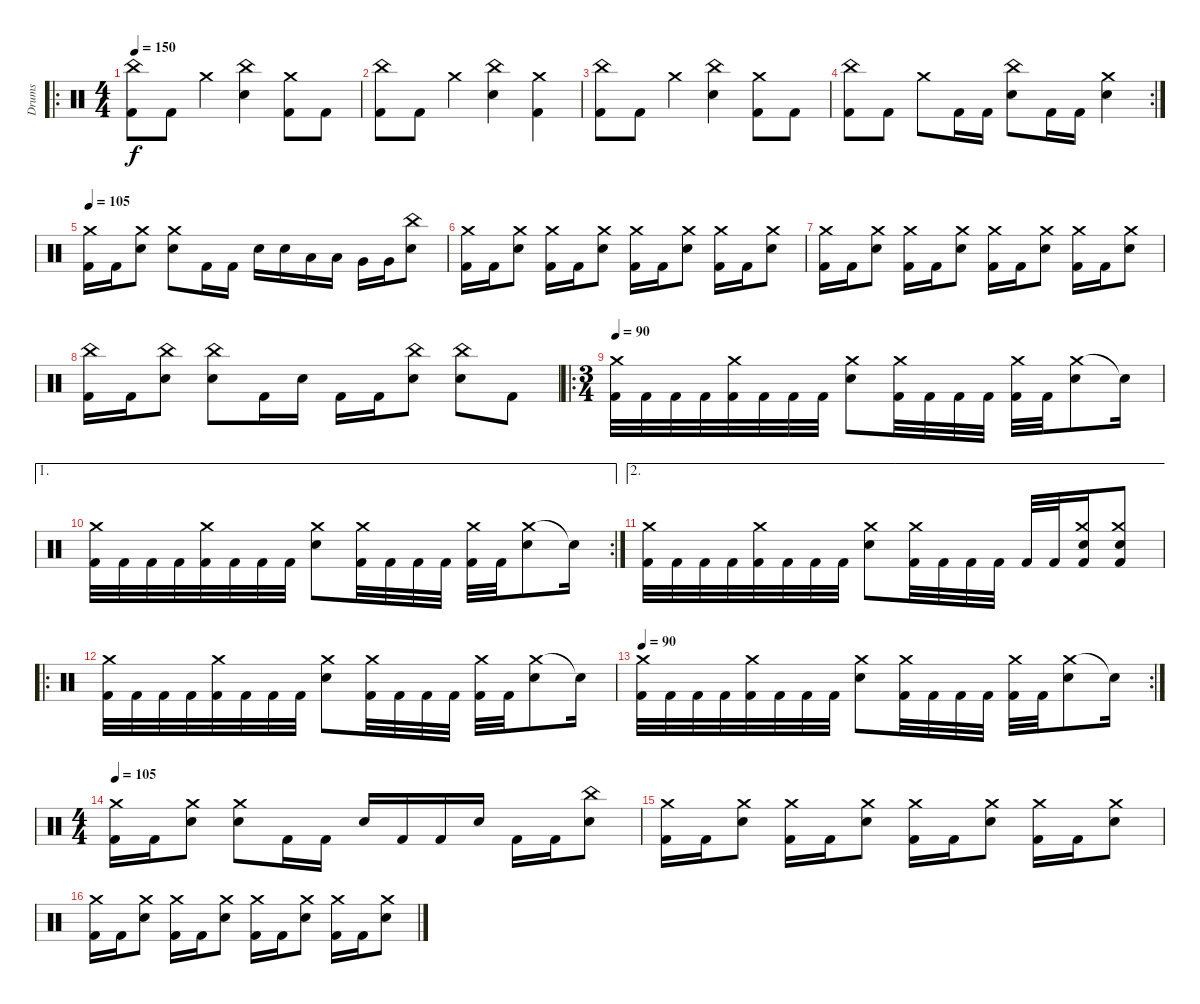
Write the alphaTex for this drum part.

\track ("Drums" "Drums") {instrument percussion}
\staff {score}
\articulation defaults
\ro
\ts (4 4)
\tempo 150
\clef neutral
\ks c
("China (hit)" "Kick (hit) 2").8{dy f} "Kick (hit) 2".8 "Crash medium (hit)".4 ("China (hit)" "Electric Snare (hit)").4 ("Crash medium (hit)" "Kick (hit) 2").8 "Kick (hit) 2".8 |
("China (hit)" "Kick (hit) 2").8 "Kick (hit) 2".8 "Crash medium (hit)".4 ("China (hit)" "Electric Snare (hit)").4 ("Crash medium (hit)" "Kick (hit) 2").4 |
("China (hit)" "Kick (hit) 2").8 "Kick (hit) 2".8 "Crash medium (hit)".4 ("China (hit)" "Electric Snare (hit)").4 ("Crash medium (hit)" "Kick (hit) 2").8 "Kick (hit) 2".8 |
\rc 2
("China (hit)" "Kick (hit) 2").8 "Kick (hit) 2".8 "Crash medium (hit)".8 "Kick (hit) 2".16 "Kick (hit) 2".16 ("China (hit)" "Electric Snare (hit)").8 "Kick (hit) 2".16 "Kick (hit) 2".16 ("Crash medium (hit)" "Electric Snare (hit)").4 |
\tempo 105
("Crash medium (hit)" "Kick (hit) 2").16 "Kick (hit) 2".16 ("Crash medium (hit)" "Electric Snare (hit)").8 ("Crash medium (hit)" "Electric Snare (hit)").8 "Kick (hit) 2".16 "Kick (hit) 2".16 "Electric Snare (hit)".16 "Electric Snare (hit)".16 "Low Tom (hit)".16 "Low Tom (hit)".16 "Very Low Tom (hit)".16 "Very Low Tom (hit)".16 ("China (hit)" "Electric Snare (hit)").8 |
("Crash medium (hit)" "Kick (hit) 2").16 "Kick (hit) 2".16 ("Crash medium (hit)" "Electric Snare (hit)").8 ("Crash medium (hit)" "Kick (hit) 2").16 "Kick (hit) 2".16 ("Crash medium (hit)" "Electric Snare (hit)").8 ("Crash medium (hit)" "Kick (hit) 2").16 "Kick (hit) 2".16 ("Crash medium (hit)" "Electric Snare (hit)").8 ("Crash medium (hit)" "Kick (hit) 2").16 "Kick (hit) 2".16 ("Crash medium (hit)" "Electric Snare (hit)").8 |
("Crash medium (hit)" "Kick (hit) 2").16 "Kick (hit) 2".16 ("Crash medium (hit)" "Electric Snare (hit)").8 ("Crash medium (hit)" "Kick (hit) 2").16 "Kick (hit) 2".16 ("Crash medium (hit)" "Electric Snare (hit)").8 ("Crash medium (hit)" "Kick (hit) 2").16 "Kick (hit) 2".16 ("Crash medium (hit)" "Electric Snare (hit)").8 ("Crash medium (hit)" "Kick (hit) 2").16 "Kick (hit) 2".16 ("Crash medium (hit)" "Electric Snare (hit)").8 |
("China (hit)" "Kick (hit) 2").16 "Kick (hit) 2".16 ("China (hit)" "Electric Snare (hit)").8 ("China (hit)" "Electric Snare (hit)").8 "Kick (hit) 2".16 "Electric Snare (hit)".16 "Kick (hit) 2".16 "Kick (hit) 2".16 ("China (hit)" "Electric Snare (hit)").8 ("China (hit)" "Electric Snare (hit)").8 "Kick (hit) 2".8 |
\ro
\ts (3 4)
\tempo 90
("Crash medium (hit)" "Kick (hit) 2").32 "Kick (hit) 2".32 "Kick (hit) 2".32 "Kick (hit) 2".32 ("Crash medium (hit)" "Kick (hit) 2").32 "Kick (hit) 2".32 "Kick (hit) 2".32 "Kick (hit) 2".32 ("Crash medium (hit)" "Electric Snare (hit)").8 ("Crash medium (hit)" "Kick (hit) 2").32 "Kick (hit) 2".32 "Kick (hit) 2".32 "Kick (hit) 2".32 ("Crash medium (hit)" "Kick (hit) 2").32 "Kick (hit) 2".32 ("Crash medium (hit)" "Electric Snare (hit)").8 "Snare (hit)"{t}.16 |
\ae 1
\rc 2
("Crash medium (hit)" "Kick (hit) 2").32 "Kick (hit) 2".32 "Kick (hit) 2".32 "Kick (hit) 2".32 ("Crash medium (hit)" "Kick (hit) 2").32 "Kick (hit) 2".32 "Kick (hit) 2".32 "Kick (hit) 2".32 ("Crash medium (hit)" "Electric Snare (hit)").8 ("Crash medium (hit)" "Kick (hit) 2").32 "Kick (hit) 2".32 "Kick (hit) 2".32 "Kick (hit) 2".32 ("Crash medium (hit)" "Kick (hit) 2").32 "Kick (hit) 2".32 ("Crash medium (hit)" "Electric Snare (hit)").8 "Snare (hit)"{t}.16 |
\ae 2
("Crash medium (hit)" "Kick (hit) 2").32 "Kick (hit) 2".32 "Kick (hit) 2".32 "Kick (hit) 2".32 ("Crash medium (hit)" "Kick (hit) 2").32 "Kick (hit) 2".32 "Kick (hit) 2".32 "Kick (hit) 2".32 ("Crash medium (hit)" "Electric Snare (hit)").8 ("Crash medium (hit)" "Kick (hit) 2").32 "Kick (hit) 2".32 "Kick (hit) 2".32 "Kick (hit) 2".32 "Kick (hit) 2".32 "Kick (hit) 2".32 ("Crash medium (hit)" "Kick (hit) 2" "Electric Snare (hit)").16 ("Crash medium (hit)" "Kick (hit) 2" "Electric Snare (hit)").8 |
\ro
("Crash medium (hit)" "Kick (hit) 2").32 "Kick (hit) 2".32 "Kick (hit) 2".32 "Kick (hit) 2".32 ("Crash medium (hit)" "Kick (hit) 2").32 "Kick (hit) 2".32 "Kick (hit) 2".32 "Kick (hit) 2".32 ("Crash medium (hit)" "Electric Snare (hit)").8 ("Crash medium (hit)" "Kick (hit) 2").32 "Kick (hit) 2".32 "Kick (hit) 2".32 "Kick (hit) 2".32 ("Crash medium (hit)" "Kick (hit) 2").32 "Kick (hit) 2".32 ("Crash medium (hit)" "Electric Snare (hit)").8 "Snare (hit)"{t}.16 |
\rc 2
\tempo 90
("Crash medium (hit)" "Kick (hit) 2").32 "Kick (hit) 2".32 "Kick (hit) 2".32 "Kick (hit) 2".32 ("Crash medium (hit)" "Kick (hit) 2").32 "Kick (hit) 2".32 "Kick (hit) 2".32 "Kick (hit) 2".32 ("Crash medium (hit)" "Electric Snare (hit)").8 ("Crash medium (hit)" "Kick (hit) 2").32 "Kick (hit) 2".32 "Kick (hit) 2".32 "Kick (hit) 2".32 ("Crash medium (hit)" "Kick (hit) 2").32 "Kick (hit) 2".32 ("Crash medium (hit)" "Electric Snare (hit)").8 "Snare (hit)"{t}.16 |
\ts (4 4)
\tempo 105
("Crash medium (hit)" "Kick (hit) 2").16 "Kick (hit) 2".16 ("Crash medium (hit)" "Electric Snare (hit)").8 ("Crash medium (hit)" "Electric Snare (hit)").8 "Kick (hit) 2".16 "Kick (hit) 2".16 "Electric Snare (hit)".16 "Kick (hit) 2".16 "Kick (hit) 2".16 "Electric Snare (hit)".16 "Kick (hit) 2".16 "Kick (hit) 2".16 ("China (hit)" "Electric Snare (hit)").8 |
("Crash medium (hit)" "Kick (hit) 2").16 "Kick (hit) 2".16 ("Crash medium (hit)" "Electric Snare (hit)").8 ("Crash medium (hit)" "Kick (hit) 2").16 "Kick (hit) 2".16 ("Crash medium (hit)" "Electric Snare (hit)").8 ("Crash medium (hit)" "Kick (hit) 2").16 "Kick (hit) 2".16 ("Crash medium (hit)" "Electric Snare (hit)").8 ("Crash medium (hit)" "Kick (hit) 2").16 "Kick (hit) 2".16 ("Crash medium (hit)" "Electric Snare (hit)").8 |
("Crash medium (hit)" "Kick (hit) 2").16 "Kick (hit) 2".16 ("Crash medium (hit)" "Electric Snare (hit)").8 ("Crash medium (hit)" "Kick (hit) 2").16 "Kick (hit) 2".16 ("Crash medium (hit)" "Electric Snare (hit)").8 ("Crash medium (hit)" "Kick (hit) 2").16 "Kick (hit) 2".16 ("Crash medium (hit)" "Electric Snare (hit)").8 ("Crash medium (hit)" "Kick (hit) 2").16 "Kick (hit) 2".16 ("Crash medium (hit)" "Electric Snare (hit)").8
